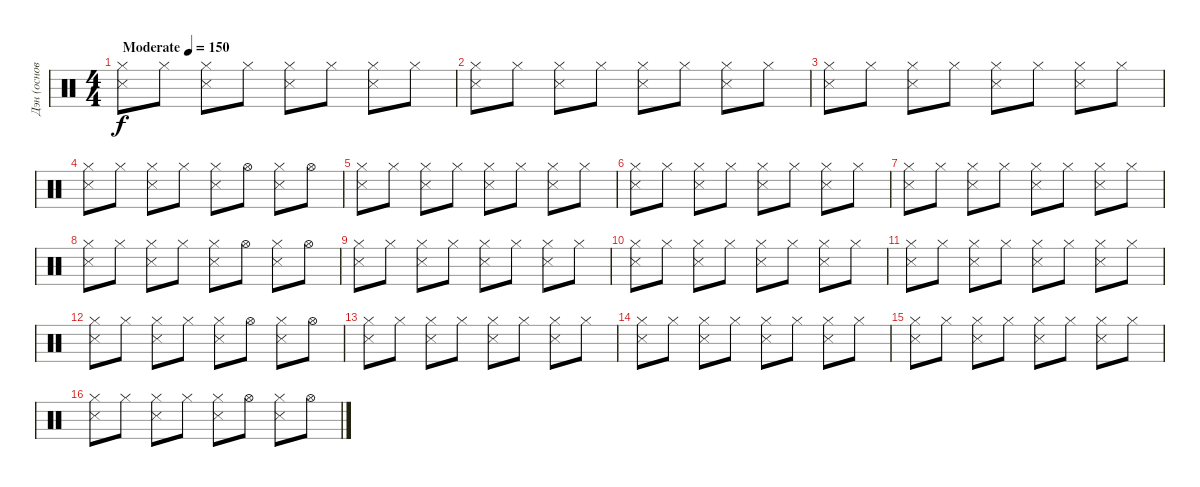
\track ("Дэн (основа)" "Дэн (основ") {instrument percussion}
\staff {score}
\articulation defaults
\ts (4 4)
\tempo (150 "Moderate")
\clef neutral
\ks c
("Hi-Hat (closed)" "Snare (side stick) 3").8{dy f} "Hi-Hat (closed)".8 ("Hi-Hat (closed)" "Snare (side stick) 3").8 "Hi-Hat (closed)".8 ("Hi-Hat (closed)" "Snare (side stick) 3").8 "Hi-Hat (closed)".8 ("Hi-Hat (closed)" "Snare (side stick) 3").8 "Hi-Hat (closed)".8 |
("Hi-Hat (closed)" "Snare (side stick) 3").8 "Hi-Hat (closed)".8 ("Hi-Hat (closed)" "Snare (side stick) 3").8 "Hi-Hat (closed)".8 ("Hi-Hat (closed)" "Snare (side stick) 3").8 "Hi-Hat (closed)".8 ("Hi-Hat (closed)" "Snare (side stick) 3").8 "Hi-Hat (closed)".8 |
("Hi-Hat (closed)" "Snare (side stick) 3").8 "Hi-Hat (closed)".8 ("Hi-Hat (closed)" "Snare (side stick) 3").8 "Hi-Hat (closed)".8 ("Hi-Hat (closed)" "Snare (side stick) 3").8 "Hi-Hat (closed)".8 ("Hi-Hat (closed)" "Snare (side stick) 3").8 "Hi-Hat (closed)".8 |
("Hi-Hat (closed)" "Snare (side stick) 3").8 "Hi-Hat (closed)".8 ("Hi-Hat (closed)" "Snare (side stick) 3").8 "Hi-Hat (closed)".8 ("Hi-Hat (closed)" "Snare (side stick) 3").8 "Hi-Hat (open)".8 ("Hi-Hat (closed)" "Snare (side stick) 3").8 "Hi-Hat (open)".8 |
("Hi-Hat (closed)" "Snare (side stick) 3").8 "Hi-Hat (closed)".8 ("Hi-Hat (closed)" "Snare (side stick) 3").8 "Hi-Hat (closed)".8 ("Hi-Hat (closed)" "Snare (side stick) 3").8 "Hi-Hat (closed)".8 ("Hi-Hat (closed)" "Snare (side stick) 3").8 "Hi-Hat (closed)".8 |
("Hi-Hat (closed)" "Snare (side stick) 3").8 "Hi-Hat (closed)".8 ("Hi-Hat (closed)" "Snare (side stick) 3").8 "Hi-Hat (closed)".8 ("Hi-Hat (closed)" "Snare (side stick) 3").8 "Hi-Hat (closed)".8 ("Hi-Hat (closed)" "Snare (side stick) 3").8 "Hi-Hat (closed)".8 |
("Hi-Hat (closed)" "Snare (side stick) 3").8 "Hi-Hat (closed)".8 ("Hi-Hat (closed)" "Snare (side stick) 3").8 "Hi-Hat (closed)".8 ("Hi-Hat (closed)" "Snare (side stick) 3").8 "Hi-Hat (closed)".8 ("Hi-Hat (closed)" "Snare (side stick) 3").8 "Hi-Hat (closed)".8 |
("Hi-Hat (closed)" "Snare (side stick) 3").8 "Hi-Hat (closed)".8 ("Hi-Hat (closed)" "Snare (side stick) 3").8 "Hi-Hat (closed)".8 ("Hi-Hat (closed)" "Snare (side stick) 3").8 "Hi-Hat (open)".8 ("Hi-Hat (closed)" "Snare (side stick) 3").8 "Hi-Hat (open)".8 |
("Hi-Hat (closed)" "Snare (side stick) 3").8 "Hi-Hat (closed)".8 ("Hi-Hat (closed)" "Snare (side stick) 3").8 "Hi-Hat (closed)".8 ("Hi-Hat (closed)" "Snare (side stick) 3").8 "Hi-Hat (closed)".8 ("Hi-Hat (closed)" "Snare (side stick) 3").8 "Hi-Hat (closed)".8 |
("Hi-Hat (closed)" "Snare (side stick) 3").8 "Hi-Hat (closed)".8 ("Hi-Hat (closed)" "Snare (side stick) 3").8 "Hi-Hat (closed)".8 ("Hi-Hat (closed)" "Snare (side stick) 3").8 "Hi-Hat (closed)".8 ("Hi-Hat (closed)" "Snare (side stick) 3").8 "Hi-Hat (closed)".8 |
("Hi-Hat (closed)" "Snare (side stick) 3").8 "Hi-Hat (closed)".8 ("Hi-Hat (closed)" "Snare (side stick) 3").8 "Hi-Hat (closed)".8 ("Hi-Hat (closed)" "Snare (side stick) 3").8 "Hi-Hat (closed)".8 ("Hi-Hat (closed)" "Snare (side stick) 3").8 "Hi-Hat (closed)".8 |
("Hi-Hat (closed)" "Snare (side stick) 3").8 "Hi-Hat (closed)".8 ("Hi-Hat (closed)" "Snare (side stick) 3").8 "Hi-Hat (closed)".8 ("Hi-Hat (closed)" "Snare (side stick) 3").8 "Hi-Hat (open)".8 ("Hi-Hat (closed)" "Snare (side stick) 3").8 "Hi-Hat (open)".8 |
("Hi-Hat (closed)" "Snare (side stick) 3").8 "Hi-Hat (closed)".8 ("Hi-Hat (closed)" "Snare (side stick) 3").8 "Hi-Hat (closed)".8 ("Hi-Hat (closed)" "Snare (side stick) 3").8 "Hi-Hat (closed)".8 ("Hi-Hat (closed)" "Snare (side stick) 3").8 "Hi-Hat (closed)".8 |
("Hi-Hat (closed)" "Snare (side stick) 3").8 "Hi-Hat (closed)".8 ("Hi-Hat (closed)" "Snare (side stick) 3").8 "Hi-Hat (closed)".8 ("Hi-Hat (closed)" "Snare (side stick) 3").8 "Hi-Hat (closed)".8 ("Hi-Hat (closed)" "Snare (side stick) 3").8 "Hi-Hat (closed)".8 |
("Hi-Hat (closed)" "Snare (side stick) 3").8 "Hi-Hat (closed)".8 ("Hi-Hat (closed)" "Snare (side stick) 3").8 "Hi-Hat (closed)".8 ("Hi-Hat (closed)" "Snare (side stick) 3").8 "Hi-Hat (closed)".8 ("Hi-Hat (closed)" "Snare (side stick) 3").8 "Hi-Hat (closed)".8 |
("Hi-Hat (closed)" "Snare (side stick) 3").8 "Hi-Hat (closed)".8 ("Hi-Hat (closed)" "Snare (side stick) 3").8 "Hi-Hat (closed)".8 ("Hi-Hat (closed)" "Snare (side stick) 3").8 "Hi-Hat (open)".8 ("Hi-Hat (closed)" "Snare (side stick) 3").8 "Hi-Hat (open)".8
